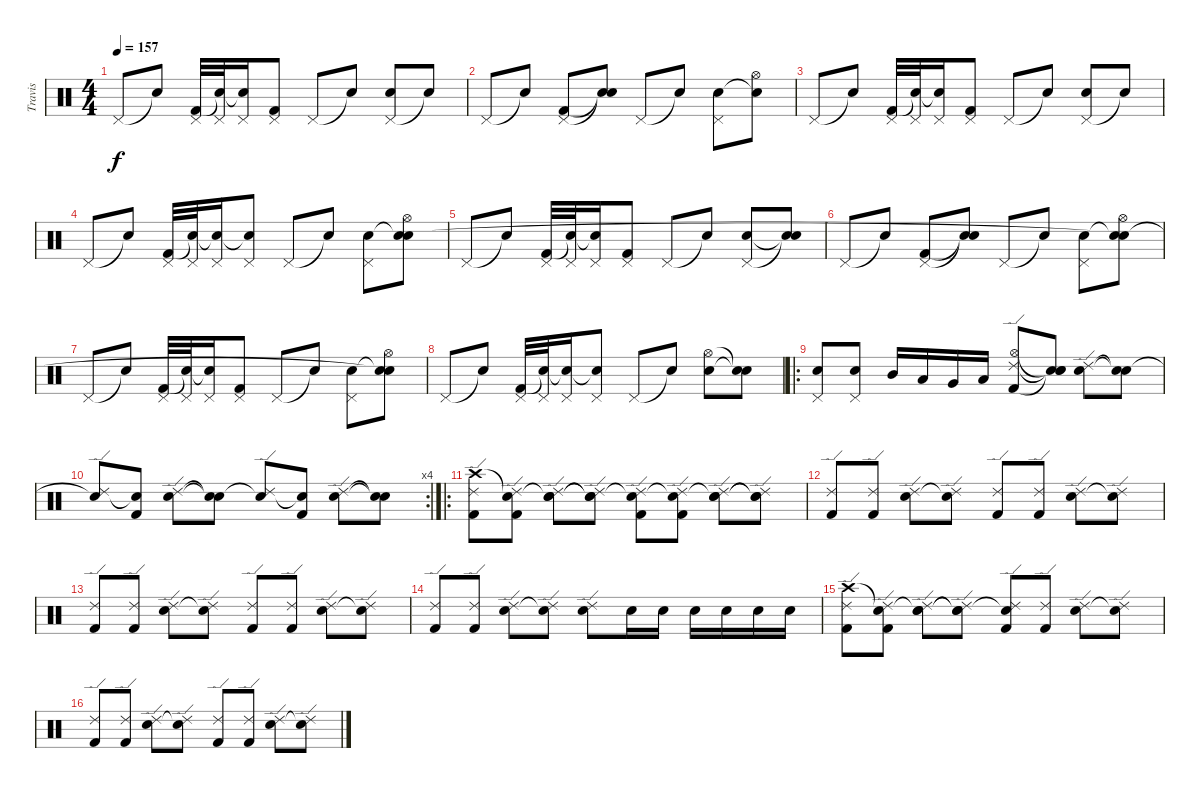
\track ("Travis" "Travis") {instrument percussion}
\staff {score}
\articulation defaults
\ts (4 4)
\tempo 157
\clef neutral
\ks c "Pedal Hi-Hat (hit)".8{dy f} "Snare (hit)"{t}.8
("Pedal Hi-Hat (hit)" "Kick (hit) 2").32 ("Pedal Hi-Hat (hit)" "Snare (hit)"{t}).32 ("Pedal Hi-Hat (hit)" "Snare (hit)"{t}).16 ("Pedal Hi-Hat (hit)" "Kick (hit) 2").8 "Pedal Hi-Hat (hit)".8 "Snare (hit)"{t}.8 ("Pedal Hi-Hat (hit)" "Snare (hit) 2").8 "Snare (hit)"{t}.8 |
"Pedal Hi-Hat (hit)".8 "Snare (hit)"{t}.8 ("Pedal Hi-Hat (hit)" "Kick (hit) 2").8 ("Snare (hit)"{t} "Snare (hit)"{t}).8 "Pedal Hi-Hat (hit)".8 "Snare (hit)"{t}.8 ("Pedal Hi-Hat (hit)" "Snare (hit) 2").8 ("Hi-Hat (open)" "Snare (hit)"{t}).8 |
"Pedal Hi-Hat (hit)".8 "Snare (hit)"{t}.8 ("Pedal Hi-Hat (hit)" "Kick (hit) 2").32 ("Pedal Hi-Hat (hit)" "Snare (hit)"{t}).32 ("Pedal Hi-Hat (hit)" "Snare (hit)"{t}).16 ("Pedal Hi-Hat (hit)" "Kick (hit) 2").8 "Pedal Hi-Hat (hit)".8 "Snare (hit)"{t}.8 ("Pedal Hi-Hat (hit)" "Snare (hit) 2").8 "Snare (hit)"{t}.8 |
"Pedal Hi-Hat (hit)".8 "Snare (hit)"{t}.8 ("Pedal Hi-Hat (hit)" "Kick (hit) 2").32 ("Pedal Hi-Hat (hit)" "Snare (hit)"{t}).32 ("Pedal Hi-Hat (hit)" "Snare (hit)"{t}).16 ("Pedal Hi-Hat (hit)" "Snare (hit)"{t}).8 "Pedal Hi-Hat (hit)".8 "Snare (hit)"{t}.8 ("Pedal Hi-Hat (hit)" "Snare (hit) 2").8 ("Hi-Hat (open)" "Snare (hit)"{t} "Snare (hit)").8 |
"Pedal Hi-Hat (hit)".8 "Snare (hit)"{t}.8 ("Pedal Hi-Hat (hit)" "Kick (hit) 2").32 ("Pedal Hi-Hat (hit)" "Snare (hit)"{t}).32 ("Pedal Hi-Hat (hit)" "Snare (hit)"{t}).16 ("Pedal Hi-Hat (hit)" "Kick (hit) 2").8 "Pedal Hi-Hat (hit)".8 "Snare (hit)"{t}.8 ("Pedal Hi-Hat (hit)" "Snare (hit) 2").8 ("Snare (hit)"{t} "Snare (hit)"{t}).8 |
"Pedal Hi-Hat (hit)".8 "Snare (hit)"{t}.8 ("Pedal Hi-Hat (hit)" "Kick (hit) 2").8 ("Snare (hit)"{t} "Snare (hit)"{t}).8 "Pedal Hi-Hat (hit)".8 "Snare (hit)"{t}.8 ("Pedal Hi-Hat (hit)" "Snare (hit) 2").8 ("Hi-Hat (open)" "Snare (hit)"{t} "Snare (hit)"{t}).8 |
"Pedal Hi-Hat (hit)".8 "Snare (hit)"{t}.8 ("Pedal Hi-Hat (hit)" "Kick (hit) 2").32 ("Pedal Hi-Hat (hit)" "Snare (hit)"{t}).32 ("Pedal Hi-Hat (hit)" "Snare (hit)"{t}).16 ("Pedal Hi-Hat (hit)" "Kick (hit) 2").8 "Pedal Hi-Hat (hit)".8 "Snare (hit)"{t}.8 ("Pedal Hi-Hat (hit)" "Snare (hit) 2").8 ("Hi-Hat (open)" "Snare (hit)"{t} "Snare (hit)"{t}).8 |
"Pedal Hi-Hat (hit)".8 "Snare (hit)"{t}.8 ("Pedal Hi-Hat (hit)" "Kick (hit) 2").32 ("Pedal Hi-Hat (hit)" "Snare (hit)"{t}).32 ("Pedal Hi-Hat (hit)" "Snare (hit)"{t}).16 ("Pedal Hi-Hat (hit)" "Snare (hit)"{t}).8 "Pedal Hi-Hat (hit)".8 "Snare (hit)"{t}.8 ("Hi-Hat (open)" "Snare (hit) 2").8 ("Snare (hit)"{t} "Snare (hit)"{t}).8 |
\ro
("Pedal Hi-Hat (hit)" "Snare (hit) 2").8 ("Pedal Hi-Hat (hit)" "Snare (hit) 2").8 "Mid Tom (hit)".16 "Low Tom (hit)".16 "Very Low Tom (hit)".16 "Low Floor Tom (hit)".16 ("Hi-Hat (open)" "Ride (edge) 2" "Kick (hit) 2").8 ("Snare (hit)"{t} "Snare (hit)"{t} "Snare (hit)"{t}).8 ("Ride (edge) 2" "Snare (hit) 2").8 ("Snare (hit)"{t} "Snare (hit)"{t}).8 |
\rc 4
("Ride (edge) 2" "Snare (hit)"{t}).8 ("Snare (hit)"{t} "Kick (hit) 2").8 ("Ride (edge) 2" "Snare (hit) 2").8 ("Snare (hit)"{t} "Snare (hit)"{t}).8 ("Ride (edge) 2" "Snare (hit)"{t}).8 ("Snare (hit)"{t} "Kick (hit) 2").8 ("Ride (edge) 2" "Snare (hit) 2").8 ("Snare (hit)"{t} "Snare (hit)"{t}).8 |
\ro
("Crash high (hit)" "Ride (edge) 2" "Kick (hit) 2").8 ("Snare (hit)"{t} "Ride (edge) 2" "Kick (hit) 2").8 ("Snare (hit)"{t} "Ride (edge) 2" "Electric Snare (hit)").8 ("Snare (hit)"{t} "Ride (edge) 2" "Snare (hit)"{t}).8 ("Snare (hit)"{t} "Ride (edge) 2" "Kick (hit) 2").8 ("Snare (hit)"{t} "Ride (edge) 2" "Kick (hit) 2").8 ("Snare (hit)"{t} "Ride (edge) 2" "Electric Snare (hit)").8 ("Snare (hit)"{t} "Ride (edge) 2" "Snare (hit)"{t}).8 |
("Ride (edge) 2" "Kick (hit) 2").8 ("Ride (edge) 2" "Kick (hit) 2").8 ("Ride (edge) 2" "Electric Snare (hit)").8 ("Ride (edge) 2" "Snare (hit)"{t}).8 ("Ride (edge) 2" "Kick (hit) 2").8 ("Ride (edge) 2" "Kick (hit) 2").8 ("Ride (edge) 2" "Electric Snare (hit)").8 ("Ride (edge) 2" "Snare (hit)"{t}).8 |
("Ride (edge) 2" "Kick (hit) 2").8 ("Ride (edge) 2" "Kick (hit) 2").8 ("Ride (edge) 2" "Electric Snare (hit)").8 ("Ride (edge) 2" "Snare (hit)"{t}).8 ("Ride (edge) 2" "Kick (hit) 2").8 ("Ride (edge) 2" "Kick (hit) 2").8 ("Ride (edge) 2" "Electric Snare (hit)").8 ("Ride (edge) 2" "Snare (hit)"{t}).8 |
("Ride (edge) 2" "Kick (hit) 2").8 ("Ride (edge) 2" "Kick (hit) 2").8 ("Ride (edge) 2" "Electric Snare (hit)").8 ("Ride (edge) 2" "Snare (hit)"{t}).8 ("Ride (edge) 2" "Electric Snare (hit)").8 "Electric Snare (hit)".16 "Electric Snare (hit)".16 "Electric Snare (hit)".16 "Electric Snare (hit)".16 "Electric Snare (hit)".16 "Electric Snare (hit)".16 |
("Crash high (hit)" "Ride (edge) 2" "Kick (hit) 2").8 ("Snare (hit)"{t} "Ride (edge) 2" "Kick (hit) 2").8 ("Snare (hit)"{t} "Ride (edge) 2" "Electric Snare (hit)").8 ("Snare (hit)"{t} "Ride (edge) 2" "Snare (hit)"{t}).8 ("Snare (hit)"{t} "Ride (edge) 2" "Kick (hit) 2").8 ("Ride (edge) 2" "Kick (hit) 2").8 ("Ride (edge) 2" "Electric Snare (hit)").8 ("Ride (edge) 2" "Snare (hit)"{t}).8 |
("Ride (edge) 2" "Kick (hit) 2").8 ("Ride (edge) 2" "Kick (hit) 2").8 ("Ride (edge) 2" "Electric Snare (hit)").8 ("Ride (edge) 2" "Snare (hit)"{t}).8 ("Ride (edge) 2" "Kick (hit) 2").8 ("Ride (edge) 2" "Kick (hit) 2").8 ("Ride (edge) 2" "Electric Snare (hit)").8 ("Ride (edge) 2" "Snare (hit)"{t}).8
